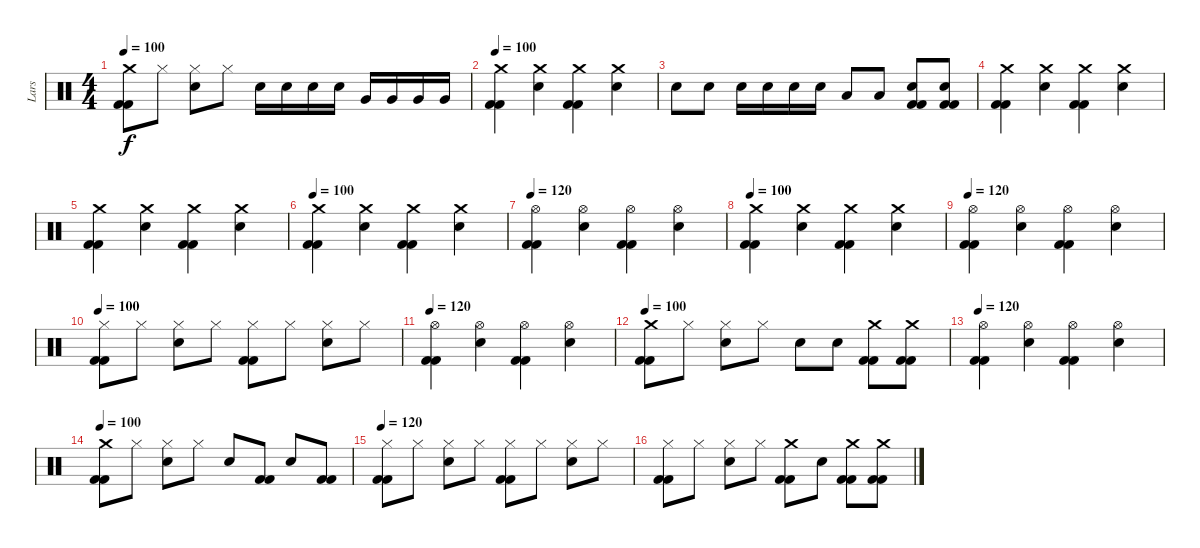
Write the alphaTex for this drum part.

\track ("Lars" "Lars") {instrument percussion}
\staff {score}
\articulation defaults
\ts (4 4)
\tempo 100
\clef neutral
\ks c
("Crash medium (hit)" "Kick (hit) 2" "Kick (hit) 2").8{dy f} "Hi-Hat (closed)".8 ("Electric Snare (hit)" "Hi-Hat (closed)").8 "Hi-Hat (closed)".8 "Electric Snare (hit)".16 "Electric Snare (hit)".16 "Electric Snare (hit)".16 "Electric Snare (hit)".16 "Very Low Tom (hit)".16 "Very Low Tom (hit)".16 "Very Low Tom (hit)".16 "Very Low Tom (hit)".16 |
\tempo 100
("Crash medium (hit)" "Kick (hit) 2" "Kick (hit) 2").4 ("Electric Snare (hit)" "Crash medium (hit)").4 ("Crash medium (hit)" "Kick (hit) 2" "Kick (hit) 2").4 ("Electric Snare (hit)" "Crash medium (hit)").4 |
"Electric Snare (hit)".8 "Electric Snare (hit)".8 "Electric Snare (hit)".16 "Electric Snare (hit)".16 "Electric Snare (hit)".16 "Electric Snare (hit)".16 "Low Tom (hit)".8 "Low Tom (hit)".8 ("Kick (hit) 2" "Kick (hit) 2" "Electric Snare (hit)").8 ("Electric Snare (hit)" "Kick (hit) 2" "Kick (hit) 2").8 |
("Crash medium (hit)" "Kick (hit) 2" "Kick (hit) 2").4 ("Electric Snare (hit)" "Crash medium (hit)").4 ("Crash medium (hit)" "Kick (hit) 2" "Kick (hit) 2").4 ("Electric Snare (hit)" "Crash medium (hit)").4 |
("Crash medium (hit)" "Kick (hit) 2" "Kick (hit) 2").4 ("Electric Snare (hit)" "Crash medium (hit)").4 ("Crash medium (hit)" "Kick (hit) 2" "Kick (hit) 2").4 ("Electric Snare (hit)" "Crash medium (hit)").4 |
\tempo 100
("Crash medium (hit)" "Kick (hit) 2" "Kick (hit) 2").4 ("Electric Snare (hit)" "Crash medium (hit)").4 ("Crash medium (hit)" "Kick (hit) 2" "Kick (hit) 2").4 ("Electric Snare (hit)" "Crash medium (hit)").4 |
\tempo 120
("Hi-Hat (open)" "Kick (hit) 2" "Kick (hit) 2").4 ("Electric Snare (hit)" "Hi-Hat (open)").4 ("Hi-Hat (open)" "Kick (hit) 2" "Kick (hit) 2").4 ("Electric Snare (hit)" "Hi-Hat (open)").4 |
\tempo 100
("Crash medium (hit)" "Kick (hit) 2" "Kick (hit) 2").4 ("Electric Snare (hit)" "Crash medium (hit)").4 ("Crash medium (hit)" "Kick (hit) 2" "Kick (hit) 2").4 ("Electric Snare (hit)" "Crash medium (hit)").4 |
\tempo 120
("Hi-Hat (open)" "Kick (hit) 2" "Kick (hit) 2").4 ("Electric Snare (hit)" "Hi-Hat (open)").4 ("Hi-Hat (open)" "Kick (hit) 2" "Kick (hit) 2").4 ("Electric Snare (hit)" "Hi-Hat (open)").4 |
\tempo 100
("Hi-Hat (closed)" "Kick (hit) 2" "Kick (hit) 2").8 "Hi-Hat (closed)".8 ("Electric Snare (hit)" "Hi-Hat (closed)").8 "Hi-Hat (closed)".8 ("Kick (hit) 2" "Kick (hit) 2" "Hi-Hat (closed)").8 "Hi-Hat (closed)".8 ("Hi-Hat (closed)" "Electric Snare (hit)").8 "Hi-Hat (closed)".8 |
\tempo 120
("Hi-Hat (open)" "Kick (hit) 2" "Kick (hit) 2").4 ("Electric Snare (hit)" "Hi-Hat (open)").4 ("Hi-Hat (open)" "Kick (hit) 2" "Kick (hit) 2").4 ("Electric Snare (hit)" "Hi-Hat (open)").4 |
\tempo 100
("Crash medium (hit)" "Kick (hit) 2" "Kick (hit) 2").8 "Hi-Hat (closed)".8 ("Electric Snare (hit)" "Hi-Hat (closed)").8 "Hi-Hat (closed)".8 "Electric Snare (hit)".8 "Electric Snare (hit)".8 ("Crash medium (hit)" "Kick (hit) 2" "Kick (hit) 2").8 ("Kick (hit) 2" "Kick (hit) 2" "Crash medium (hit)").8 |
\tempo 120
("Hi-Hat (open)" "Kick (hit) 2" "Kick (hit) 2").4 ("Electric Snare (hit)" "Hi-Hat (open)").4 ("Hi-Hat (open)" "Kick (hit) 2" "Kick (hit) 2").4 ("Electric Snare (hit)" "Hi-Hat (open)").4 |
\tempo 100
("Crash medium (hit)" "Kick (hit) 2" "Kick (hit) 2").8 "Hi-Hat (closed)".8 ("Electric Snare (hit)" "Hi-Hat (closed)").8 "Hi-Hat (closed)".8 "Electric Snare (hit)".8 ("Kick (hit) 2" "Kick (hit) 2").8 "Electric Snare (hit)".8 ("Kick (hit) 2" "Kick (hit) 2").8 |
\tempo 120
("Hi-Hat (closed)" "Kick (hit) 2" "Kick (hit) 2").8 "Hi-Hat (closed)".8 ("Electric Snare (hit)" "Hi-Hat (closed)").8 "Hi-Hat (closed)".8 ("Hi-Hat (closed)" "Kick (hit) 2" "Kick (hit) 2").8 "Hi-Hat (closed)".8 ("Electric Snare (hit)" "Hi-Hat (closed)").8 "Hi-Hat (closed)".8 |
("Hi-Hat (closed)" "Kick (hit) 2" "Kick (hit) 2").8 "Hi-Hat (closed)".8 ("Electric Snare (hit)" "Hi-Hat (closed)").8 "Hi-Hat (closed)".8 ("Crash medium (hit)" "Kick (hit) 2" "Kick (hit) 2").8 "Electric Snare (hit)".8 ("Kick (hit) 2" "Kick (hit) 2" "Crash medium (hit)").8 ("Kick (hit) 2" "Kick (hit) 2" "Crash medium (hit)").8
